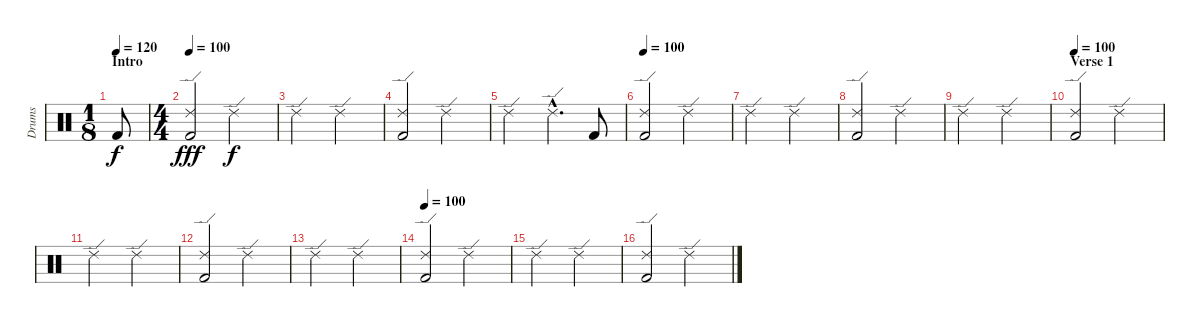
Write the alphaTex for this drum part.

\track ("Drums" "Drums") {instrument percussion}
\staff {score}
\articulation defaults
\ts (1 8)
\section ("" "Intro")
\tempo 120
\tempo 100
\tempo 120
\clef neutral
\ks c "Kick (hit) 2".8{dy f}
|
\ts (4 4)
\tempo 100
("Ride (edge) 2" "Kick (hit) 2").2{dy fff} "Ride (edge) 2".2{dy f} |
"Ride (edge) 2".2 "Ride (edge) 2".2 |
("Ride (edge) 2" "Kick (hit) 2").2 "Ride (edge) 2".2 |
"Ride (edge) 2".2 "Ride (edge) 2"{hac}.4{d} "Kick (hit) 2".8 |
\tempo 100
("Ride (edge) 2" "Kick (hit) 2").2 "Ride (edge) 2".2 |
"Ride (edge) 2".2 "Ride (edge) 2".2 |
("Ride (edge) 2" "Kick (hit) 2").2 "Ride (edge) 2".2 |
"Ride (edge) 2".2 "Ride (edge) 2".2 |
\section ("" "Verse 1")
\tempo 100
("Ride (edge) 2" "Kick (hit) 2").2 "Ride (edge) 2".2 |
"Ride (edge) 2".2 "Ride (edge) 2".2 |
("Ride (edge) 2" "Kick (hit) 2").2 "Ride (edge) 2".2 |
"Ride (edge) 2".2 "Ride (edge) 2".2 |
\tempo 100
("Ride (edge) 2" "Kick (hit) 2").2 "Ride (edge) 2".2 |
"Ride (edge) 2".2 "Ride (edge) 2".2 |
("Ride (edge) 2" "Kick (hit) 2").2 "Ride (edge) 2".2
